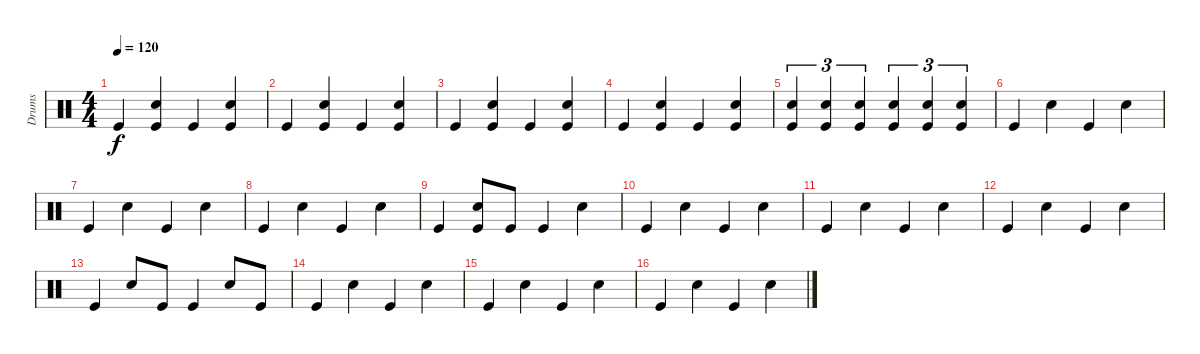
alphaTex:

\track ("Drums" "Drums") {instrument percussion}
\staff {score}
\articulation defaults
\ts (4 4)
\tempo 120
\clef neutral
\ks c "Kick (hit)".4{dy f}
("Snare (hit) 2" "Kick (hit)").4 "Kick (hit)".4 ("Snare (hit) 2" "Kick (hit)").4 |
"Kick (hit)".4 ("Snare (hit) 2" "Kick (hit)").4 "Kick (hit)".4 ("Snare (hit) 2" "Kick (hit)").4 |
"Kick (hit)".4 ("Snare (hit) 2" "Kick (hit)").4 "Kick (hit)".4 ("Snare (hit) 2" "Kick (hit)").4 |
"Kick (hit)".4 ("Snare (hit) 2" "Kick (hit)").4 "Kick (hit)".4 ("Snare (hit) 2" "Kick (hit)").4 |
("Snare (hit) 2" "Kick (hit)").4{tu (3 2)} ("Snare (hit) 2" "Kick (hit)").4{tu (3 2)} ("Snare (hit) 2" "Kick (hit)").4{tu (3 2)} ("Snare (hit) 2" "Kick (hit)").4{tu (3 2)} ("Snare (hit) 2" "Kick (hit)").4{tu (3 2)} ("Snare (hit) 2" "Kick (hit)").4{tu (3 2)} |
"Kick (hit)".4 "Snare (hit) 2".4 "Kick (hit)".4 "Snare (hit) 2".4 |
"Kick (hit)".4 "Snare (hit) 2".4 "Kick (hit)".4 "Snare (hit) 2".4 |
"Kick (hit)".4 "Snare (hit) 2".4 "Kick (hit)".4 "Snare (hit) 2".4 |
"Kick (hit)".4 ("Snare (hit) 2" "Kick (hit)").8 "Kick (hit)".8 "Kick (hit)".4 "Snare (hit) 2".4 |
"Kick (hit)".4 "Snare (hit) 2".4 "Kick (hit)".4 "Snare (hit) 2".4 |
"Kick (hit)".4 "Snare (hit) 2".4 "Kick (hit)".4 "Snare (hit) 2".4 |
"Kick (hit)".4 "Snare (hit) 2".4 "Kick (hit)".4 "Snare (hit) 2".4 |
"Kick (hit)".4 "Snare (hit) 2".8 "Kick (hit)".8 "Kick (hit)".4 "Snare (hit) 2".8 "Kick (hit)".8 |
"Kick (hit)".4 "Snare (hit) 2".4 "Kick (hit)".4 "Snare (hit) 2".4 |
"Kick (hit)".4 "Snare (hit) 2".4 "Kick (hit)".4 "Snare (hit) 2".4 |
"Kick (hit)".4 "Snare (hit) 2".4 "Kick (hit)".4 "Snare (hit) 2".4
